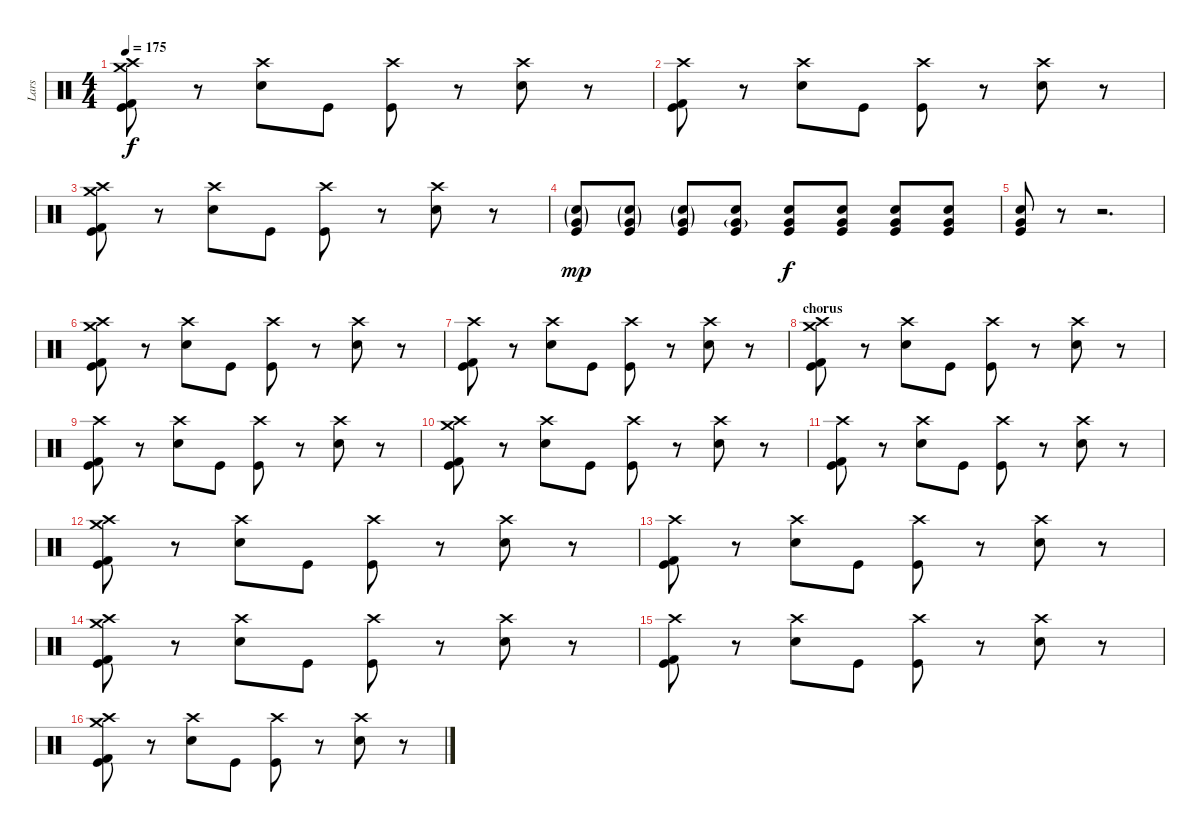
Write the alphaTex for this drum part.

\track ("Lars" "Lars") {instrument percussion}
\staff {score}
\articulation defaults
\ts (4 4)
\tempo 175
\clef neutral
\ks c
("Crash high (hit)" "Crash medium (hit)" "Kick (hit) 2" "Kick (hit)").8{dy f} r.8 ("Crash high (hit)" "Snare (hit) 2").8 "Kick (hit)".8 ("Crash high (hit)" "Kick (hit)").8 r.8 ("Crash high (hit)" "Snare (hit) 2").8 r.8 |
("Crash high (hit)" "Kick (hit) 2" "Kick (hit)").8 r.8 ("Crash high (hit)" "Snare (hit) 2").8 "Kick (hit)".8 ("Crash high (hit)" "Kick (hit)").8 r.8 ("Crash high (hit)" "Snare (hit) 2").8 r.8 |
("Crash high (hit)" "Crash medium (hit)" "Kick (hit) 2" "Kick (hit)").8 r.8 ("Crash high (hit)" "Snare (hit) 2").8 "Kick (hit)".8 ("Crash high (hit)" "Kick (hit)").8 r.8 ("Crash high (hit)" "Snare (hit) 2").8 r.8 |
("Snare (hit) 2"{g} "Very Low Tom (hit)"{g} "Kick (hit)").8{dy mp} ("Snare (hit) 2"{g} "Very Low Tom (hit)"{g} "Kick (hit)").8 ("Snare (hit) 2"{g} "Very Low Tom (hit)"{g} "Kick (hit)").8 ("Snare (hit) 2" "Very Low Tom (hit)"{g} "Kick (hit)").8 ("Snare (hit) 2" "Very Low Tom (hit)" "Kick (hit)").8{dy f} ("Snare (hit) 2" "Very Low Tom (hit)" "Kick (hit)").8 ("Snare (hit) 2" "Very Low Tom (hit)" "Kick (hit)").8 ("Snare (hit) 2" "Very Low Tom (hit)" "Kick (hit)").8 |
("Snare (hit) 2" "Very Low Tom (hit)" "Kick (hit)").8 r.8 r.2{d} |
("Crash high (hit)" "Crash medium (hit)" "Kick (hit) 2" "Kick (hit)").8 r.8 ("Crash high (hit)" "Snare (hit) 2").8 "Kick (hit)".8 ("Crash high (hit)" "Kick (hit)").8 r.8 ("Crash high (hit)" "Snare (hit) 2").8 r.8 |
("Crash high (hit)" "Kick (hit) 2" "Kick (hit)").8 r.8 ("Crash high (hit)" "Snare (hit) 2").8 "Kick (hit)".8 ("Crash high (hit)" "Kick (hit)").8 r.8 ("Crash high (hit)" "Snare (hit) 2").8 r.8 |
\section ("" "chorus")
("Crash high (hit)" "Crash medium (hit)" "Kick (hit) 2" "Kick (hit)").8 r.8 ("Crash high (hit)" "Snare (hit) 2").8 "Kick (hit)".8 ("Crash high (hit)" "Kick (hit)").8 r.8 ("Crash high (hit)" "Snare (hit) 2").8 r.8 |
("Crash high (hit)" "Kick (hit) 2" "Kick (hit)").8 r.8 ("Crash high (hit)" "Snare (hit) 2").8 "Kick (hit)".8 ("Crash high (hit)" "Kick (hit)").8 r.8 ("Crash high (hit)" "Snare (hit) 2").8 r.8 |
("Crash high (hit)" "Crash medium (hit)" "Kick (hit) 2" "Kick (hit)").8 r.8 ("Crash high (hit)" "Snare (hit) 2").8 "Kick (hit)".8 ("Crash high (hit)" "Kick (hit)").8 r.8 ("Crash high (hit)" "Snare (hit) 2").8 r.8 |
("Crash high (hit)" "Kick (hit) 2" "Kick (hit)").8 r.8 ("Crash high (hit)" "Snare (hit) 2").8 "Kick (hit)".8 ("Crash high (hit)" "Kick (hit)").8 r.8 ("Crash high (hit)" "Snare (hit) 2").8 r.8 |
("Crash high (hit)" "Crash medium (hit)" "Kick (hit) 2" "Kick (hit)").8 r.8 ("Crash high (hit)" "Snare (hit) 2").8 "Kick (hit)".8 ("Crash high (hit)" "Kick (hit)").8 r.8 ("Crash high (hit)" "Snare (hit) 2").8 r.8 |
("Crash high (hit)" "Kick (hit) 2" "Kick (hit)").8 r.8 ("Crash high (hit)" "Snare (hit) 2").8 "Kick (hit)".8 ("Crash high (hit)" "Kick (hit)").8 r.8 ("Crash high (hit)" "Snare (hit) 2").8 r.8 |
("Crash high (hit)" "Crash medium (hit)" "Kick (hit) 2" "Kick (hit)").8 r.8 ("Crash high (hit)" "Snare (hit) 2").8 "Kick (hit)".8 ("Crash high (hit)" "Kick (hit)").8 r.8 ("Crash high (hit)" "Snare (hit) 2").8 r.8 |
("Crash high (hit)" "Kick (hit) 2" "Kick (hit)").8 r.8 ("Crash high (hit)" "Snare (hit) 2").8 "Kick (hit)".8 ("Crash high (hit)" "Kick (hit)").8 r.8 ("Crash high (hit)" "Snare (hit) 2").8 r.8 |
("Crash high (hit)" "Crash medium (hit)" "Kick (hit) 2" "Kick (hit)").8 r.8 ("Crash high (hit)" "Snare (hit) 2").8 "Kick (hit)".8 ("Crash high (hit)" "Kick (hit)").8 r.8 ("Crash high (hit)" "Snare (hit) 2").8 r.8
